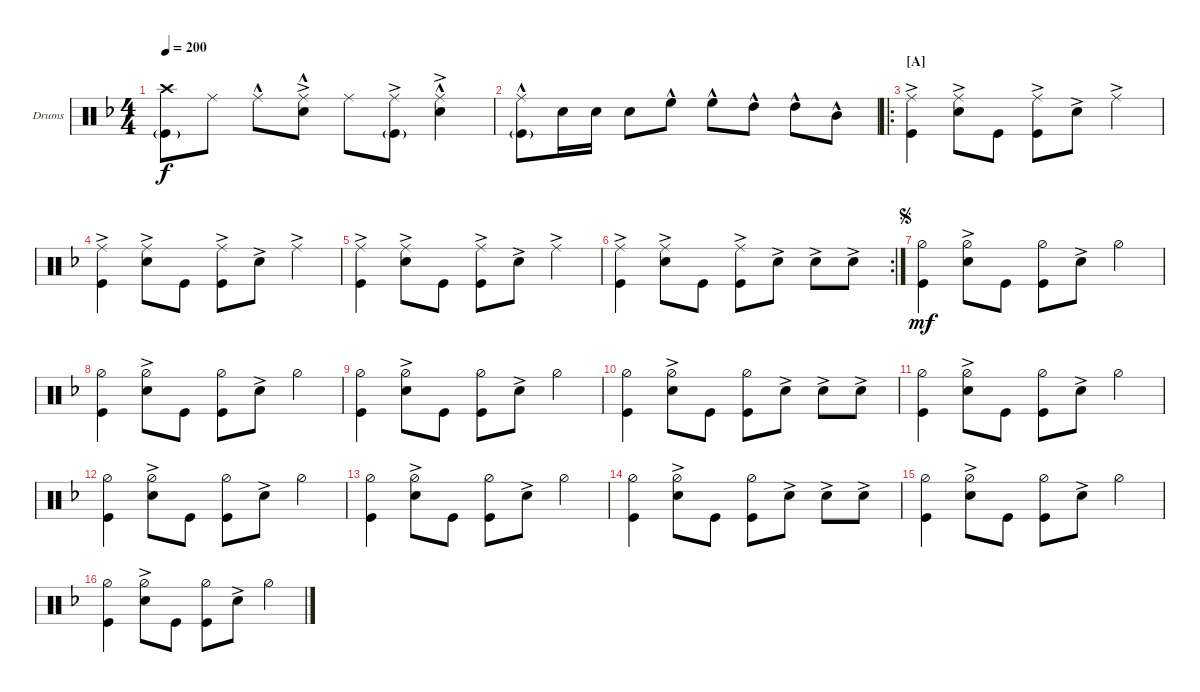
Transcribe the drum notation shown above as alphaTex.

\bracketExtendMode groupsimilarinstruments
\firstSystemTrackNameOrientation horizontal
\otherSystemsTrackNameOrientation horizontal
\track ("Drumkit" "Drums") {instrument percussion}
\staff {score}
\articulation defaults
\ts (4 4)
\tempo 200
\clef neutral
\ks dminor
("Kick (hit)"{g} "Crash high (hit)").8{dy f} "Ride (middle)".8 "Ride (middle)"{hac}.8 ("Snare (hit) 2"{ac} "Ride (middle)"{hac}).8 "Ride (middle)".8 ("Ride (middle)"{ac} "Kick (hit)"{g}).8 ("Ride (middle)"{hac} "Snare (hit) 2"{ac}).4 |
("Ride (middle)"{hac} "Kick (hit)"{g}).8 "Snare (hit) 2".16 "Snare (hit) 2".16 "Snare (hit) 2".8 "High Floor Tom (hit)"{hac}.8 "High Floor Tom (hit)"{hac}.8 "High Tom (hit)"{hac}.8 "High Tom (hit)"{hac}.8 "Mid Tom (hit)"{hac}.8 |
\ro
\section ("A" "")
("Kick (hit)" "Ride (middle)"{ac}).4 ("Snare (hit) 2"{ac} "Ride (middle)"{ac}).8 "Kick (hit)".8 ("Kick (hit)" "Ride (middle)"{ac}).8 "Snare (hit) 2"{ac}.8 "Ride (middle)"{ac}.4 |
("Kick (hit)" "Ride (middle)"{ac}).4 ("Snare (hit) 2"{ac} "Ride (middle)"{ac}).8 "Kick (hit)".8 ("Kick (hit)" "Ride (middle)"{ac}).8 "Snare (hit) 2"{ac}.8 "Ride (middle)"{ac}.4 |
("Kick (hit)" "Ride (middle)"{ac}).4 ("Snare (hit) 2"{ac} "Ride (middle)"{ac}).8 "Kick (hit)".8 ("Kick (hit)" "Ride (middle)"{ac}).8 "Snare (hit) 2"{ac}.8 "Ride (middle)"{ac}.4 |
\rc 2
("Kick (hit)" "Ride (middle)"{ac}).4 ("Snare (hit) 2"{ac} "Ride (middle)"{ac}).8 "Kick (hit)".8 ("Kick (hit)" "Ride (middle)"{ac}).8 "Snare (hit) 2"{ac}.8 "Snare (hit) 2"{ac}.8 "Snare (hit) 2"{ac}.8 |
\jump segno
("Hi-Hat (half)" "Kick (hit)").4{dy mf} ("Hi-Hat (half)" "Snare (hit) 2"{ac}).8 "Kick (hit)".8 ("Hi-Hat (half)" "Kick (hit)").8 "Snare (hit) 2"{ac}.8 "Hi-Hat (half)".4 |
("Hi-Hat (half)" "Kick (hit)").4 ("Hi-Hat (half)" "Snare (hit) 2"{ac}).8 "Kick (hit)".8 ("Hi-Hat (half)" "Kick (hit)").8 "Snare (hit) 2"{ac}.8 "Hi-Hat (half)".4 |
("Hi-Hat (half)" "Kick (hit)").4 ("Hi-Hat (half)" "Snare (hit) 2"{ac}).8 "Kick (hit)".8 ("Hi-Hat (half)" "Kick (hit)").8 "Snare (hit) 2"{ac}.8 "Hi-Hat (half)".4 |
("Hi-Hat (half)" "Kick (hit)").4 ("Hi-Hat (half)" "Snare (hit) 2"{ac}).8 "Kick (hit)".8 ("Hi-Hat (half)" "Kick (hit)").8 "Snare (hit) 2"{ac}.8 "Snare (hit) 2"{ac}.8 "Snare (hit) 2"{ac}.8 |
("Hi-Hat (half)" "Kick (hit)").4 ("Hi-Hat (half)" "Snare (hit) 2"{ac}).8 "Kick (hit)".8 ("Hi-Hat (half)" "Kick (hit)").8 "Snare (hit) 2"{ac}.8 "Hi-Hat (half)".4 |
("Hi-Hat (half)" "Kick (hit)").4 ("Hi-Hat (half)" "Snare (hit) 2"{ac}).8 "Kick (hit)".8 ("Hi-Hat (half)" "Kick (hit)").8 "Snare (hit) 2"{ac}.8 "Hi-Hat (half)".4 |
("Hi-Hat (half)" "Kick (hit)").4 ("Hi-Hat (half)" "Snare (hit) 2"{ac}).8 "Kick (hit)".8 ("Hi-Hat (half)" "Kick (hit)").8 "Snare (hit) 2"{ac}.8 "Hi-Hat (half)".4 |
("Hi-Hat (half)" "Kick (hit)").4 ("Hi-Hat (half)" "Snare (hit) 2"{ac}).8 "Kick (hit)".8 ("Hi-Hat (half)" "Kick (hit)").8 "Snare (hit) 2"{ac}.8 "Snare (hit) 2"{ac}.8 "Snare (hit) 2"{ac}.8 |
("Hi-Hat (half)" "Kick (hit)").4 ("Hi-Hat (half)" "Snare (hit) 2"{ac}).8 "Kick (hit)".8 ("Hi-Hat (half)" "Kick (hit)").8 "Snare (hit) 2"{ac}.8 "Hi-Hat (half)".4 |
("Hi-Hat (half)" "Kick (hit)").4 ("Hi-Hat (half)" "Snare (hit) 2"{ac}).8 "Kick (hit)".8 ("Hi-Hat (half)" "Kick (hit)").8 "Snare (hit) 2"{ac}.8 "Hi-Hat (half)".4
